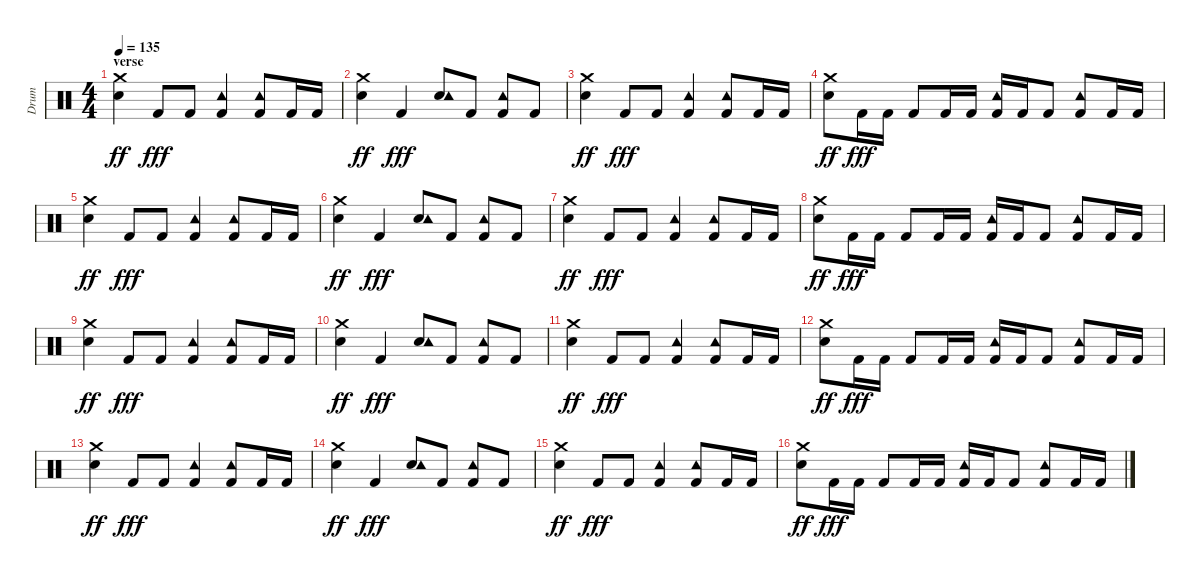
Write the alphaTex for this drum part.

\track ("Drum" "Drum") {instrument percussion}
\staff {score}
\articulation defaults
\ts (4 4)
\section ("" "verse")
\tempo 135
\clef neutral
\ks c
("Electric Snare (hit)" "Crash medium (hit)").4{dy ff} "Kick (hit) 2".8{dy fff} "Kick (hit) 2".8 ("Kick (hit) 2" "Tambourine (hit)").4 ("Kick (hit) 2" "Tambourine (hit)").8 "Kick (hit) 2".16 "Kick (hit) 2".16 |
("Electric Snare (hit)" "Crash medium (hit)").4{dy ff} "Kick (hit) 2".4{dy fff} ("Electric Snare (hit)" "Tambourine (hit)").8 "Kick (hit) 2".8 ("Kick (hit) 2" "Tambourine (hit)").8 "Kick (hit) 2".8 |
("Electric Snare (hit)" "Crash medium (hit)").4{dy ff} "Kick (hit) 2".8{dy fff} "Kick (hit) 2".8 ("Kick (hit) 2" "Tambourine (hit)").4 ("Kick (hit) 2" "Tambourine (hit)").8 "Kick (hit) 2".16 "Kick (hit) 2".16 |
("Electric Snare (hit)" "Crash medium (hit)").8{dy ff} "Kick (hit) 2".16{dy fff} "Kick (hit) 2".16 "Kick (hit) 2".8 "Kick (hit) 2".16 "Kick (hit) 2".16 ("Kick (hit) 2" "Tambourine (hit)").16 "Kick (hit) 2".16 "Kick (hit) 2".8 ("Kick (hit) 2" "Tambourine (hit)").8 "Kick (hit) 2".16 "Kick (hit) 2".16 |
("Electric Snare (hit)" "Crash medium (hit)").4{dy ff} "Kick (hit) 2".8{dy fff} "Kick (hit) 2".8 ("Kick (hit) 2" "Tambourine (hit)").4 ("Kick (hit) 2" "Tambourine (hit)").8 "Kick (hit) 2".16 "Kick (hit) 2".16 |
("Electric Snare (hit)" "Crash medium (hit)").4{dy ff} "Kick (hit) 2".4{dy fff} ("Electric Snare (hit)" "Tambourine (hit)").8 "Kick (hit) 2".8 ("Kick (hit) 2" "Tambourine (hit)").8 "Kick (hit) 2".8 |
("Electric Snare (hit)" "Crash medium (hit)").4{dy ff} "Kick (hit) 2".8{dy fff} "Kick (hit) 2".8 ("Kick (hit) 2" "Tambourine (hit)").4 ("Kick (hit) 2" "Tambourine (hit)").8 "Kick (hit) 2".16 "Kick (hit) 2".16 |
("Electric Snare (hit)" "Crash medium (hit)").8{dy ff} "Kick (hit) 2".16{dy fff} "Kick (hit) 2".16 "Kick (hit) 2".8 "Kick (hit) 2".16 "Kick (hit) 2".16 ("Kick (hit) 2" "Tambourine (hit)").16 "Kick (hit) 2".16 "Kick (hit) 2".8 ("Kick (hit) 2" "Tambourine (hit)").8 "Kick (hit) 2".16 "Kick (hit) 2".16 |
("Electric Snare (hit)" "Crash medium (hit)").4{dy ff} "Kick (hit) 2".8{dy fff} "Kick (hit) 2".8 ("Kick (hit) 2" "Tambourine (hit)").4 ("Kick (hit) 2" "Tambourine (hit)").8 "Kick (hit) 2".16 "Kick (hit) 2".16 |
("Electric Snare (hit)" "Crash medium (hit)").4{dy ff} "Kick (hit) 2".4{dy fff} ("Electric Snare (hit)" "Tambourine (hit)").8 "Kick (hit) 2".8 ("Kick (hit) 2" "Tambourine (hit)").8 "Kick (hit) 2".8 |
("Electric Snare (hit)" "Crash medium (hit)").4{dy ff} "Kick (hit) 2".8{dy fff} "Kick (hit) 2".8 ("Kick (hit) 2" "Tambourine (hit)").4 ("Kick (hit) 2" "Tambourine (hit)").8 "Kick (hit) 2".16 "Kick (hit) 2".16 |
("Electric Snare (hit)" "Crash medium (hit)").8{dy ff} "Kick (hit) 2".16{dy fff} "Kick (hit) 2".16 "Kick (hit) 2".8 "Kick (hit) 2".16 "Kick (hit) 2".16 ("Kick (hit) 2" "Tambourine (hit)").16 "Kick (hit) 2".16 "Kick (hit) 2".8 ("Kick (hit) 2" "Tambourine (hit)").8 "Kick (hit) 2".16 "Kick (hit) 2".16 |
("Electric Snare (hit)" "Crash medium (hit)").4{dy ff} "Kick (hit) 2".8{dy fff} "Kick (hit) 2".8 ("Kick (hit) 2" "Tambourine (hit)").4 ("Kick (hit) 2" "Tambourine (hit)").8 "Kick (hit) 2".16 "Kick (hit) 2".16 |
("Electric Snare (hit)" "Crash medium (hit)").4{dy ff} "Kick (hit) 2".4{dy fff} ("Electric Snare (hit)" "Tambourine (hit)").8 "Kick (hit) 2".8 ("Kick (hit) 2" "Tambourine (hit)").8 "Kick (hit) 2".8 |
("Electric Snare (hit)" "Crash medium (hit)").4{dy ff} "Kick (hit) 2".8{dy fff} "Kick (hit) 2".8 ("Kick (hit) 2" "Tambourine (hit)").4 ("Kick (hit) 2" "Tambourine (hit)").8 "Kick (hit) 2".16 "Kick (hit) 2".16 |
("Electric Snare (hit)" "Crash medium (hit)").8{dy ff} "Kick (hit) 2".16{dy fff} "Kick (hit) 2".16 "Kick (hit) 2".8 "Kick (hit) 2".16 "Kick (hit) 2".16 ("Kick (hit) 2" "Tambourine (hit)").16 "Kick (hit) 2".16 "Kick (hit) 2".8 ("Kick (hit) 2" "Tambourine (hit)").8 "Kick (hit) 2".16 "Kick (hit) 2".16
